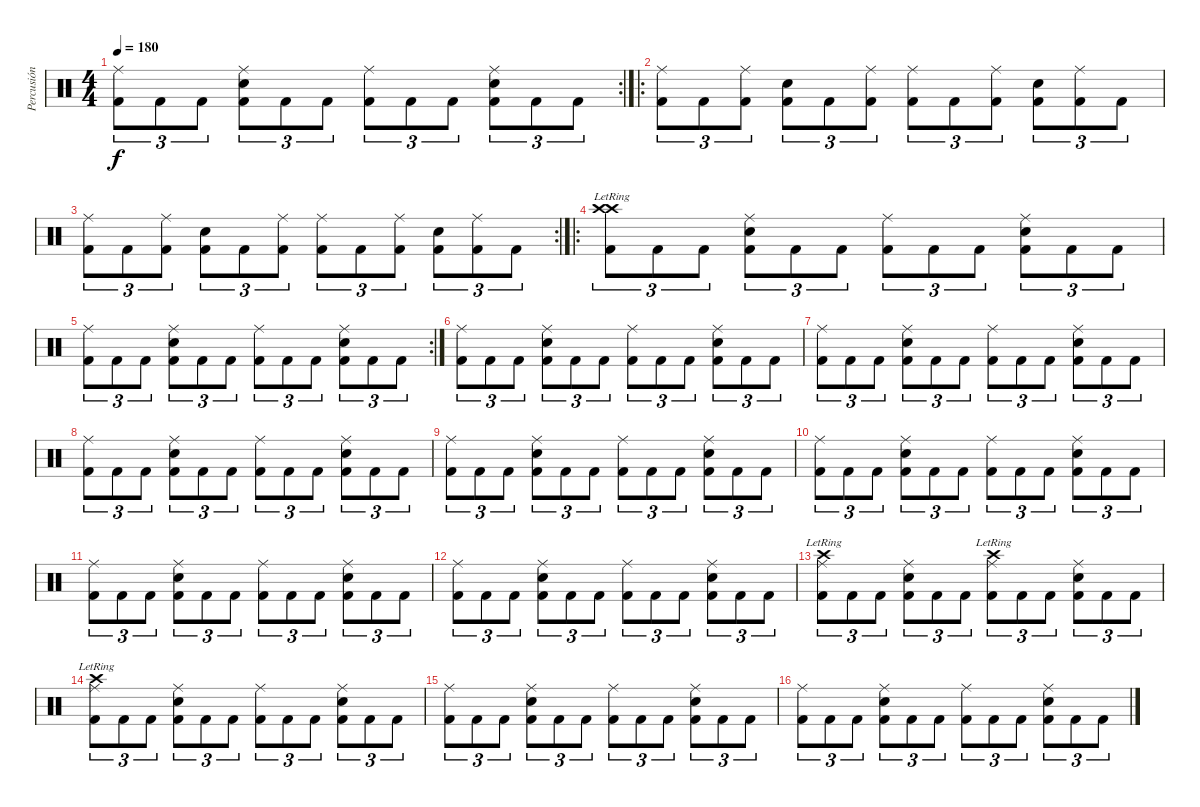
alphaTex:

\track ("Percusión" "Percusión") {instrument percussion}
\staff {score}
\articulation defaults
\rc 2
\ts (4 4)
\tempo 180
\clef neutral
\ks c
("Ride (middle)" "Kick (hit) 2").8{tu (3 2) dy f} "Kick (hit) 2".8{tu (3 2)} "Kick (hit) 2".8{tu (3 2)} ("Ride (middle)" "Snare (hit) 2" "Kick (hit) 2").8{tu (3 2)} "Kick (hit) 2".8{tu (3 2)} "Kick (hit) 2".8{tu (3 2)} ("Ride (middle)" "Kick (hit) 2").8{tu (3 2)} "Kick (hit) 2".8{tu (3 2)} "Kick (hit) 2".8{tu (3 2)} ("Ride (middle)" "Snare (hit) 2" "Kick (hit) 2").8{tu (3 2)} "Kick (hit) 2".8{tu (3 2)} "Kick (hit) 2".8{tu (3 2)} |
\ro
("Ride (middle)" "Kick (hit) 2").8{tu (3 2)} "Kick (hit) 2".8{tu (3 2)} ("Ride (middle)" "Kick (hit) 2").8{tu (3 2)} ("Snare (hit) 2" "Kick (hit) 2").8{tu (3 2)} "Kick (hit) 2".8{tu (3 2)} ("Ride (middle)" "Kick (hit) 2").8{tu (3 2)} ("Ride (middle)" "Kick (hit) 2").8{tu (3 2)} "Kick (hit) 2".8{tu (3 2)} ("Ride (middle)" "Kick (hit) 2").8{tu (3 2)} ("Snare (hit) 2" "Kick (hit) 2").8{tu (3 2)} ("Ride (middle)" "Kick (hit) 2").8{tu (3 2)} "Kick (hit) 2".8{tu (3 2)} |
\rc 2
("Ride (middle)" "Kick (hit) 2").8{tu (3 2)} "Kick (hit) 2".8{tu (3 2)} ("Ride (middle)" "Kick (hit) 2").8{tu (3 2)} ("Snare (hit) 2" "Kick (hit) 2").8{tu (3 2)} "Kick (hit) 2".8{tu (3 2)} ("Ride (middle)" "Kick (hit) 2").8{tu (3 2)} ("Ride (middle)" "Kick (hit) 2").8{tu (3 2)} "Kick (hit) 2".8{tu (3 2)} ("Ride (middle)" "Kick (hit) 2").8{tu (3 2)} ("Snare (hit) 2" "Kick (hit) 2").8{tu (3 2)} ("Ride (middle)" "Kick (hit) 2").8{tu (3 2)} "Kick (hit) 2".8{tu (3 2)} |
\ro
("Crash high (hit)"{lr} "Crash high (hit)"{lr} "Kick (hit) 2").8{tu (3 2)} "Kick (hit) 2".8{tu (3 2)} "Kick (hit) 2".8{tu (3 2)} ("Ride (middle)" "Snare (hit) 2" "Kick (hit) 2").8{tu (3 2)} "Kick (hit) 2".8{tu (3 2)} "Kick (hit) 2".8{tu (3 2)} ("Ride (middle)" "Kick (hit) 2").8{tu (3 2)} "Kick (hit) 2".8{tu (3 2)} "Kick (hit) 2".8{tu (3 2)} ("Ride (middle)" "Snare (hit) 2" "Kick (hit) 2").8{tu (3 2)} "Kick (hit) 2".8{tu (3 2)} "Kick (hit) 2".8{tu (3 2)} |
\rc 2
("Ride (middle)" "Kick (hit) 2").8{tu (3 2)} "Kick (hit) 2".8{tu (3 2)} "Kick (hit) 2".8{tu (3 2)} ("Ride (middle)" "Snare (hit) 2" "Kick (hit) 2").8{tu (3 2)} "Kick (hit) 2".8{tu (3 2)} "Kick (hit) 2".8{tu (3 2)} ("Ride (middle)" "Kick (hit) 2").8{tu (3 2)} "Kick (hit) 2".8{tu (3 2)} "Kick (hit) 2".8{tu (3 2)} ("Ride (middle)" "Snare (hit) 2" "Kick (hit) 2").8{tu (3 2)} "Kick (hit) 2".8{tu (3 2)} "Kick (hit) 2".8{tu (3 2)} |
("Ride (middle)" "Kick (hit) 2").8{tu (3 2)} "Kick (hit) 2".8{tu (3 2)} "Kick (hit) 2".8{tu (3 2)} ("Ride (middle)" "Snare (hit) 2" "Kick (hit) 2").8{tu (3 2)} "Kick (hit) 2".8{tu (3 2)} "Kick (hit) 2".8{tu (3 2)} ("Ride (middle)" "Kick (hit) 2").8{tu (3 2)} "Kick (hit) 2".8{tu (3 2)} "Kick (hit) 2".8{tu (3 2)} ("Ride (middle)" "Snare (hit) 2" "Kick (hit) 2").8{tu (3 2)} "Kick (hit) 2".8{tu (3 2)} "Kick (hit) 2".8{tu (3 2)} |
("Ride (middle)" "Kick (hit) 2").8{tu (3 2)} "Kick (hit) 2".8{tu (3 2)} "Kick (hit) 2".8{tu (3 2)} ("Ride (middle)" "Snare (hit) 2" "Kick (hit) 2").8{tu (3 2)} "Kick (hit) 2".8{tu (3 2)} "Kick (hit) 2".8{tu (3 2)} ("Ride (middle)" "Kick (hit) 2").8{tu (3 2)} "Kick (hit) 2".8{tu (3 2)} "Kick (hit) 2".8{tu (3 2)} ("Ride (middle)" "Snare (hit) 2" "Kick (hit) 2").8{tu (3 2)} "Kick (hit) 2".8{tu (3 2)} "Kick (hit) 2".8{tu (3 2)} |
("Ride (middle)" "Kick (hit) 2").8{tu (3 2)} "Kick (hit) 2".8{tu (3 2)} "Kick (hit) 2".8{tu (3 2)} ("Ride (middle)" "Snare (hit) 2" "Kick (hit) 2").8{tu (3 2)} "Kick (hit) 2".8{tu (3 2)} "Kick (hit) 2".8{tu (3 2)} ("Ride (middle)" "Kick (hit) 2").8{tu (3 2)} "Kick (hit) 2".8{tu (3 2)} "Kick (hit) 2".8{tu (3 2)} ("Ride (middle)" "Snare (hit) 2" "Kick (hit) 2").8{tu (3 2)} "Kick (hit) 2".8{tu (3 2)} "Kick (hit) 2".8{tu (3 2)} |
("Ride (middle)" "Kick (hit) 2").8{tu (3 2)} "Kick (hit) 2".8{tu (3 2)} "Kick (hit) 2".8{tu (3 2)} ("Ride (middle)" "Snare (hit) 2" "Kick (hit) 2").8{tu (3 2)} "Kick (hit) 2".8{tu (3 2)} "Kick (hit) 2".8{tu (3 2)} ("Ride (middle)" "Kick (hit) 2").8{tu (3 2)} "Kick (hit) 2".8{tu (3 2)} "Kick (hit) 2".8{tu (3 2)} ("Ride (middle)" "Snare (hit) 2" "Kick (hit) 2").8{tu (3 2)} "Kick (hit) 2".8{tu (3 2)} "Kick (hit) 2".8{tu (3 2)} |
("Ride (middle)" "Kick (hit) 2").8{tu (3 2)} "Kick (hit) 2".8{tu (3 2)} "Kick (hit) 2".8{tu (3 2)} ("Ride (middle)" "Snare (hit) 2" "Kick (hit) 2").8{tu (3 2)} "Kick (hit) 2".8{tu (3 2)} "Kick (hit) 2".8{tu (3 2)} ("Ride (middle)" "Kick (hit) 2").8{tu (3 2)} "Kick (hit) 2".8{tu (3 2)} "Kick (hit) 2".8{tu (3 2)} ("Ride (middle)" "Snare (hit) 2" "Kick (hit) 2").8{tu (3 2)} "Kick (hit) 2".8{tu (3 2)} "Kick (hit) 2".8{tu (3 2)} |
("Ride (middle)" "Kick (hit) 2").8{tu (3 2)} "Kick (hit) 2".8{tu (3 2)} "Kick (hit) 2".8{tu (3 2)} ("Ride (middle)" "Snare (hit) 2" "Kick (hit) 2").8{tu (3 2)} "Kick (hit) 2".8{tu (3 2)} "Kick (hit) 2".8{tu (3 2)} ("Ride (middle)" "Kick (hit) 2").8{tu (3 2)} "Kick (hit) 2".8{tu (3 2)} "Kick (hit) 2".8{tu (3 2)} ("Ride (middle)" "Snare (hit) 2" "Kick (hit) 2").8{tu (3 2)} "Kick (hit) 2".8{tu (3 2)} "Kick (hit) 2".8{tu (3 2)} |
("Ride (middle)" "Kick (hit) 2").8{tu (3 2)} "Kick (hit) 2".8{tu (3 2)} "Kick (hit) 2".8{tu (3 2)} ("Ride (middle)" "Snare (hit) 2" "Kick (hit) 2").8{tu (3 2)} "Kick (hit) 2".8{tu (3 2)} "Kick (hit) 2".8{tu (3 2)} ("Ride (middle)" "Kick (hit) 2").8{tu (3 2)} "Kick (hit) 2".8{tu (3 2)} "Kick (hit) 2".8{tu (3 2)} ("Ride (middle)" "Snare (hit) 2" "Kick (hit) 2").8{tu (3 2)} "Kick (hit) 2".8{tu (3 2)} "Kick (hit) 2".8{tu (3 2)} |
("Crash high (hit)"{lr} "Ride (middle)" "Kick (hit) 2").8{tu (3 2)} "Kick (hit) 2".8{tu (3 2)} "Kick (hit) 2".8{tu (3 2)} ("Ride (middle)" "Snare (hit) 2" "Kick (hit) 2").8{tu (3 2)} "Kick (hit) 2".8{tu (3 2)} "Kick (hit) 2".8{tu (3 2)} ("Crash high (hit)"{lr} "Ride (middle)" "Kick (hit) 2").8{tu (3 2)} "Kick (hit) 2".8{tu (3 2)} "Kick (hit) 2".8{tu (3 2)} ("Ride (middle)" "Snare (hit) 2" "Kick (hit) 2").8{tu (3 2)} "Kick (hit) 2".8{tu (3 2)} "Kick (hit) 2".8{tu (3 2)} |
("Crash high (hit)"{lr} "Ride (middle)" "Kick (hit) 2").8{tu (3 2)} "Kick (hit) 2".8{tu (3 2)} "Kick (hit) 2".8{tu (3 2)} ("Ride (middle)" "Snare (hit) 2" "Kick (hit) 2").8{tu (3 2)} "Kick (hit) 2".8{tu (3 2)} "Kick (hit) 2".8{tu (3 2)} ("Ride (middle)" "Kick (hit) 2").8{tu (3 2)} "Kick (hit) 2".8{tu (3 2)} "Kick (hit) 2".8{tu (3 2)} ("Ride (middle)" "Snare (hit) 2" "Kick (hit) 2").8{tu (3 2)} "Kick (hit) 2".8{tu (3 2)} "Kick (hit) 2".8{tu (3 2)} |
("Ride (middle)" "Kick (hit) 2").8{tu (3 2)} "Kick (hit) 2".8{tu (3 2)} "Kick (hit) 2".8{tu (3 2)} ("Ride (middle)" "Snare (hit) 2" "Kick (hit) 2").8{tu (3 2)} "Kick (hit) 2".8{tu (3 2)} "Kick (hit) 2".8{tu (3 2)} ("Ride (middle)" "Kick (hit) 2").8{tu (3 2)} "Kick (hit) 2".8{tu (3 2)} "Kick (hit) 2".8{tu (3 2)} ("Ride (middle)" "Snare (hit) 2" "Kick (hit) 2").8{tu (3 2)} "Kick (hit) 2".8{tu (3 2)} "Kick (hit) 2".8{tu (3 2)} |
("Ride (middle)" "Kick (hit) 2").8{tu (3 2)} "Kick (hit) 2".8{tu (3 2)} "Kick (hit) 2".8{tu (3 2)} ("Ride (middle)" "Snare (hit) 2" "Kick (hit) 2").8{tu (3 2)} "Kick (hit) 2".8{tu (3 2)} "Kick (hit) 2".8{tu (3 2)} ("Ride (middle)" "Kick (hit) 2").8{tu (3 2)} "Kick (hit) 2".8{tu (3 2)} "Kick (hit) 2".8{tu (3 2)} ("Ride (middle)" "Snare (hit) 2" "Kick (hit) 2").8{tu (3 2)} "Kick (hit) 2".8{tu (3 2)} "Kick (hit) 2".8{tu (3 2)}
